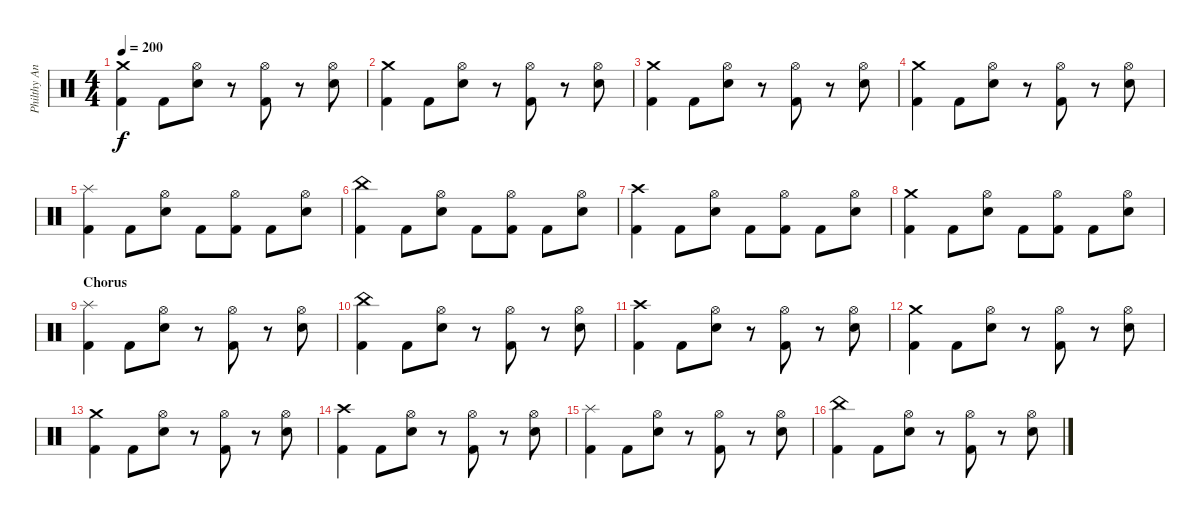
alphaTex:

\track ("Philthy Animal Taylor" "Philthy An") {instrument percussion}
\staff {score}
\articulation defaults
\ts (4 4)
\tempo 200
\clef neutral
\ks c
("Crash medium (hit)" "Kick (hit) 2").4{dy f} "Kick (hit) 2".8 ("Hi-Hat (open)" "Electric Snare (hit)").8 r.8 ("Hi-Hat (open)" "Kick (hit) 2").8 r.8 ("Hi-Hat (open)" "Electric Snare (hit)").8 |
("Crash medium (hit)" "Kick (hit) 2").4 "Kick (hit) 2".8 ("Hi-Hat (open)" "Electric Snare (hit)").8 r.8 ("Hi-Hat (open)" "Kick (hit) 2").8 r.8 ("Hi-Hat (open)" "Electric Snare (hit)").8 |
("Crash medium (hit)" "Kick (hit) 2").4 "Kick (hit) 2".8 ("Hi-Hat (open)" "Electric Snare (hit)").8 r.8 ("Hi-Hat (open)" "Kick (hit) 2").8 r.8 ("Hi-Hat (open)" "Electric Snare (hit)").8 |
("Crash medium (hit)" "Kick (hit) 2").4 "Kick (hit) 2".8 ("Hi-Hat (open)" "Electric Snare (hit)").8 r.8 ("Hi-Hat (open)" "Kick (hit) 2").8 r.8 ("Hi-Hat (open)" "Electric Snare (hit)").8 |
("Splash (hit)" "Kick (hit) 2").4 "Kick (hit) 2".8 ("Hi-Hat (open)" "Electric Snare (hit)").8 "Kick (hit) 2".8 ("Hi-Hat (open)" "Kick (hit) 2").8 "Kick (hit) 2".8 ("Hi-Hat (open)" "Electric Snare (hit)").8 |
("China (hit)" "Kick (hit) 2").4 "Kick (hit) 2".8 ("Hi-Hat (open)" "Electric Snare (hit)").8 "Kick (hit) 2".8 ("Hi-Hat (open)" "Kick (hit) 2").8 "Kick (hit) 2".8 ("Hi-Hat (open)" "Electric Snare (hit)").8 |
("Crash high (hit)" "Kick (hit) 2").4 "Kick (hit) 2".8 ("Hi-Hat (open)" "Electric Snare (hit)").8 "Kick (hit) 2".8 ("Hi-Hat (open)" "Kick (hit) 2").8 "Kick (hit) 2".8 ("Hi-Hat (open)" "Electric Snare (hit)").8 |
("Crash medium (hit)" "Kick (hit) 2").4 "Kick (hit) 2".8 ("Hi-Hat (open)" "Electric Snare (hit)").8 "Kick (hit) 2".8 ("Hi-Hat (open)" "Kick (hit) 2").8 "Kick (hit) 2".8 ("Hi-Hat (open)" "Electric Snare (hit)").8 |
\section ("" "Chorus")
("Splash (hit)" "Kick (hit) 2").4 "Kick (hit) 2".8 ("Hi-Hat (open)" "Electric Snare (hit)").8 r.8 ("Hi-Hat (open)" "Kick (hit) 2").8 r.8 ("Hi-Hat (open)" "Electric Snare (hit)").8 |
("China (hit)" "Kick (hit) 2").4 "Kick (hit) 2".8 ("Hi-Hat (open)" "Electric Snare (hit)").8 r.8 ("Hi-Hat (open)" "Kick (hit) 2").8 r.8 ("Hi-Hat (open)" "Electric Snare (hit)").8 |
("Crash high (hit)" "Kick (hit) 2").4 "Kick (hit) 2".8 ("Hi-Hat (open)" "Electric Snare (hit)").8 r.8 ("Hi-Hat (open)" "Kick (hit) 2").8 r.8 ("Hi-Hat (open)" "Electric Snare (hit)").8 |
("Crash medium (hit)" "Kick (hit) 2").4 "Kick (hit) 2".8 ("Hi-Hat (open)" "Electric Snare (hit)").8 r.8 ("Hi-Hat (open)" "Kick (hit) 2").8 r.8 ("Hi-Hat (open)" "Electric Snare (hit)").8 |
("Crash medium (hit)" "Kick (hit) 2").4 "Kick (hit) 2".8 ("Hi-Hat (open)" "Electric Snare (hit)").8 r.8 ("Hi-Hat (open)" "Kick (hit) 2").8 r.8 ("Hi-Hat (open)" "Electric Snare (hit)").8 |
("Crash high (hit)" "Kick (hit) 2").4 "Kick (hit) 2".8 ("Hi-Hat (open)" "Electric Snare (hit)").8 r.8 ("Hi-Hat (open)" "Kick (hit) 2").8 r.8 ("Hi-Hat (open)" "Electric Snare (hit)").8 |
("Splash (hit)" "Kick (hit) 2").4 "Kick (hit) 2".8 ("Hi-Hat (open)" "Electric Snare (hit)").8 r.8 ("Hi-Hat (open)" "Kick (hit) 2").8 r.8 ("Hi-Hat (open)" "Electric Snare (hit)").8 |
("China (hit)" "Kick (hit) 2").4 "Kick (hit) 2".8 ("Hi-Hat (open)" "Electric Snare (hit)").8 r.8 ("Hi-Hat (open)" "Kick (hit) 2").8 r.8 ("Hi-Hat (open)" "Electric Snare (hit)").8
